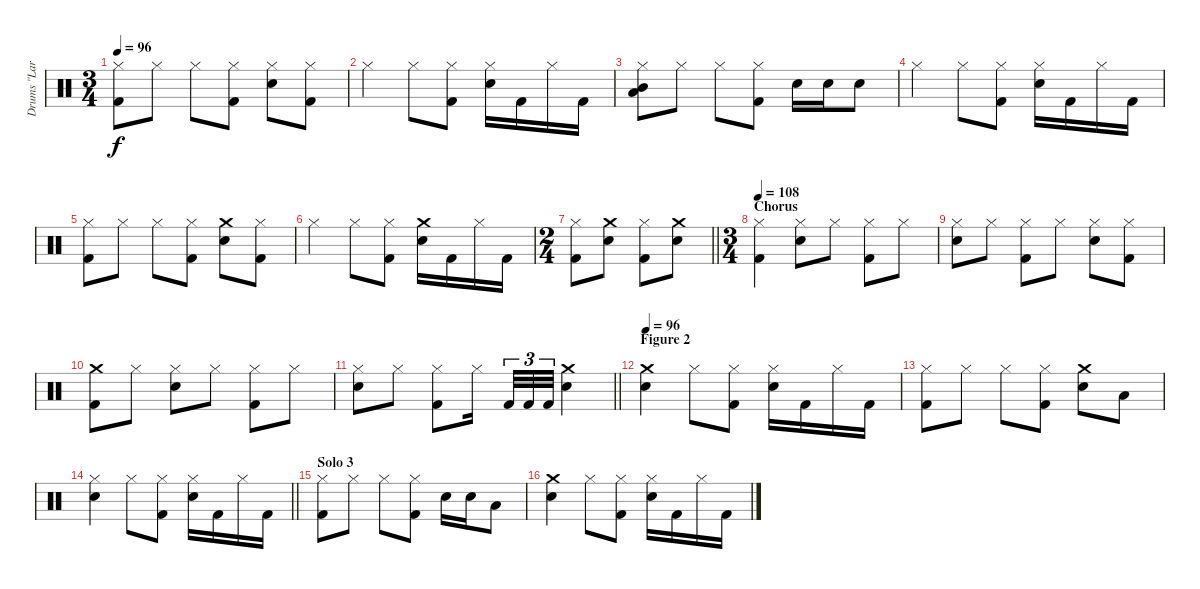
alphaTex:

\track ("Drums \"Lars Ulrich\"" "Drums \"Lar") {instrument percussion}
\staff {score}
\articulation defaults
\ts (3 4)
\tempo 96
\clef neutral
\ks c
("Hi-Hat (closed)" "Kick (hit) 2").8{dy f} "Hi-Hat (closed)".8 "Hi-Hat (closed)".8 ("Hi-Hat (closed)" "Kick (hit) 2").8 ("Hi-Hat (closed)" "Electric Snare (hit)").8 ("Hi-Hat (closed)" "Kick (hit) 2").8 |
"Hi-Hat (closed)".4 "Hi-Hat (closed)".8 ("Hi-Hat (closed)" "Kick (hit) 2").8 ("Hi-Hat (closed)" "Electric Snare (hit)").16 "Kick (hit) 2".16 "Hi-Hat (closed)".16 "Kick (hit) 2".16 |
("Mid Tom (hit)" "Low Tom (hit)" "Hi-Hat (closed)").8 "Hi-Hat (closed)".8 "Hi-Hat (closed)".8 ("Hi-Hat (closed)" "Kick (hit) 2").8 "Electric Snare (hit)".16 "Electric Snare (hit)".16 "Electric Snare (hit)".8 |
"Hi-Hat (closed)".4 "Hi-Hat (closed)".8 ("Hi-Hat (closed)" "Kick (hit) 2").8 ("Hi-Hat (closed)" "Electric Snare (hit)").16 "Kick (hit) 2".16 "Hi-Hat (closed)".16 "Kick (hit) 2".16 |
("Hi-Hat (closed)" "Kick (hit) 2").8 "Hi-Hat (closed)".8 "Hi-Hat (closed)".8 ("Hi-Hat (closed)" "Kick (hit) 2").8 ("Crash medium (hit)" "Electric Snare (hit)").8 ("Hi-Hat (closed)" "Kick (hit) 2").8 |
"Hi-Hat (closed)".4 "Hi-Hat (closed)".8 ("Hi-Hat (closed)" "Kick (hit) 2").8 ("Crash medium (hit)" "Electric Snare (hit)").16 "Kick (hit) 2".16 "Hi-Hat (closed)".16 "Kick (hit) 2".16 |
\ts (2 4)
\barLineRight lightlight
("Hi-Hat (closed)" "Kick (hit) 2").8 ("Crash medium (hit)" "Electric Snare (hit)").8 ("Hi-Hat (closed)" "Kick (hit) 2").8 ("Crash medium (hit)" "Electric Snare (hit)").8 |
\ts (3 4)
\section ("" "Chorus")
\tempo 108
("Hi-Hat (closed)" "Kick (hit) 2").4 ("Hi-Hat (closed)" "Electric Snare (hit)").8 "Hi-Hat (closed)".8 ("Hi-Hat (closed)" "Kick (hit) 2").8 "Hi-Hat (closed)".8 |
("Hi-Hat (closed)" "Electric Snare (hit)").8 "Hi-Hat (closed)".8 ("Hi-Hat (closed)" "Kick (hit) 2").8 "Hi-Hat (closed)".8 ("Hi-Hat (closed)" "Electric Snare (hit)").8 ("Hi-Hat (closed)" "Kick (hit) 2").8 |
("Crash medium (hit)" "Kick (hit) 2").8 "Hi-Hat (closed)".8 ("Hi-Hat (closed)" "Electric Snare (hit)").8 "Hi-Hat (closed)".8 ("Hi-Hat (closed)" "Kick (hit) 2").8 "Hi-Hat (closed)".8 |
\barLineRight lightlight
("Hi-Hat (closed)" "Electric Snare (hit)").8 "Hi-Hat (closed)".8 ("Hi-Hat (closed)" "Kick (hit) 2").8 "Hi-Hat (closed)".16{beam splitsecondary} "Kick (hit) 2".32{tu (3 2)} "Kick (hit) 2".32{tu (3 2)} "Kick (hit) 2".32{tu (3 2)} ("Crash medium (hit)" "Electric Snare (hit)").4 |
\section ("" "Figure 2")
\tempo 96
("Crash medium (hit)" "Electric Snare (hit)").4 "Hi-Hat (closed)".8 ("Hi-Hat (closed)" "Kick (hit) 2").8 ("Hi-Hat (closed)" "Electric Snare (hit)").16 "Kick (hit) 2".16 "Hi-Hat (closed)".16 "Kick (hit) 2".16 |
("Hi-Hat (closed)" "Kick (hit) 2").8 "Hi-Hat (closed)".8 "Hi-Hat (closed)".8 ("Hi-Hat (closed)" "Kick (hit) 2").8 ("Crash medium (hit)" "Electric Snare (hit)").8 "Low Tom (hit)".8 |
\barLineRight lightlight
("Hi-Hat (closed)" "Electric Snare (hit)").4 "Hi-Hat (closed)".8 ("Hi-Hat (closed)" "Kick (hit) 2").8 ("Hi-Hat (closed)" "Electric Snare (hit)").16 "Kick (hit) 2".16 "Hi-Hat (closed)".16 "Kick (hit) 2".16 |
\section ("" "Solo 3")
("Hi-Hat (closed)" "Kick (hit) 2").8 "Hi-Hat (closed)".8 "Hi-Hat (closed)".8 ("Hi-Hat (closed)" "Kick (hit) 2").8 "Electric Snare (hit)".16 "Electric Snare (hit)".16 "Low Tom (hit)".8 |
("Crash medium (hit)" "Electric Snare (hit)").4 "Hi-Hat (closed)".8 ("Hi-Hat (closed)" "Kick (hit) 2").8 ("Hi-Hat (closed)" "Electric Snare (hit)").16 "Kick (hit) 2".16 "Hi-Hat (closed)".16 "Kick (hit) 2".16
